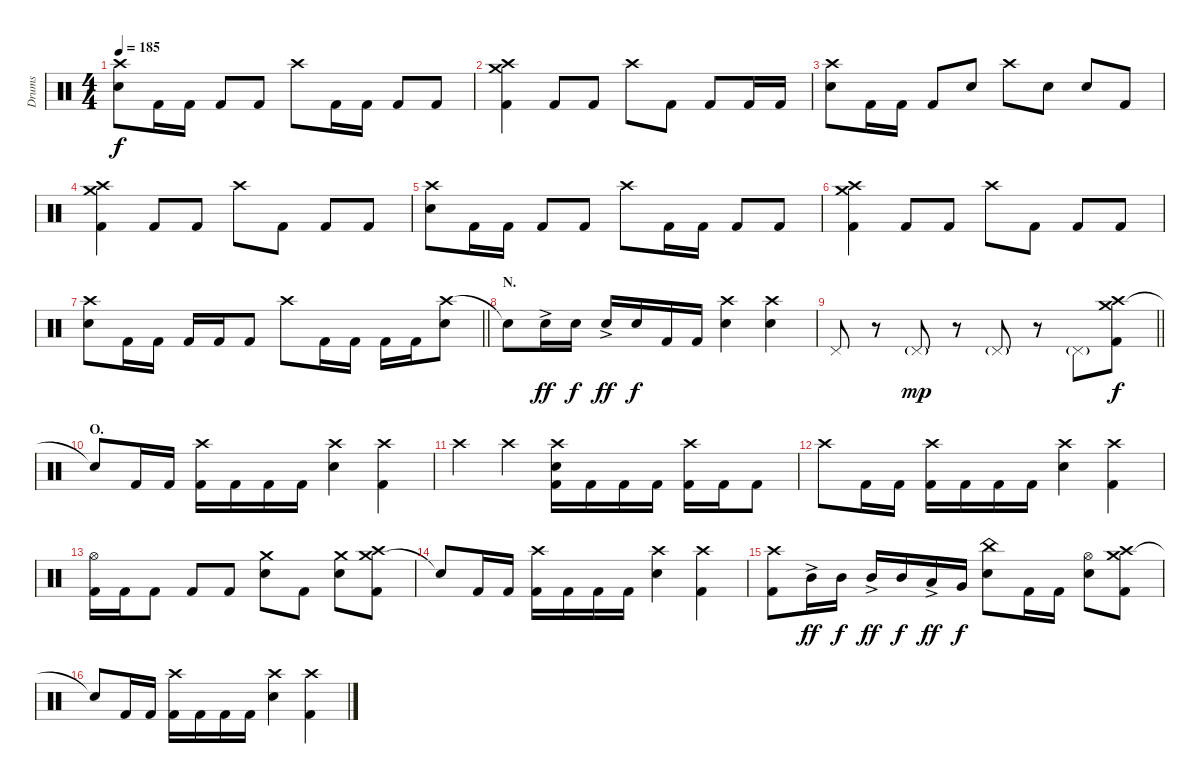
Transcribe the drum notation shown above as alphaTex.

\track ("Drums" "Drums") {instrument percussion}
\staff {score}
\articulation defaults
\ts (4 4)
\tempo 185
\clef neutral
\ks c
("Crash high (hit)" "Electric Snare (hit)").8{dy f} "Kick (hit) 2".16 "Kick (hit) 2".16 "Kick (hit) 2".8 "Kick (hit) 2".8 "Crash high (hit)".8 "Kick (hit) 2".16 "Kick (hit) 2".16 "Kick (hit) 2".8 "Kick (hit) 2".8 |
("Crash medium (hit)" "Crash high (hit)" "Kick (hit) 2").4 "Kick (hit) 2".8 "Kick (hit) 2".8 "Crash high (hit)".8 "Kick (hit) 2".8 "Kick (hit) 2".8 "Kick (hit) 2".16 "Kick (hit) 2".16 |
("Crash high (hit)" "Electric Snare (hit)").8 "Kick (hit) 2".16 "Kick (hit) 2".16 "Kick (hit) 2".8 "Electric Snare (hit)".8 "Crash high (hit)".8 "Electric Snare (hit)".8 "Electric Snare (hit)".8 "Kick (hit) 2".8 |
("Crash medium (hit)" "Crash high (hit)" "Kick (hit) 2").4 "Kick (hit) 2".8 "Kick (hit) 2".8 "Crash high (hit)".8 "Kick (hit) 2".8 "Kick (hit) 2".8 "Kick (hit) 2".8 |
("Crash high (hit)" "Electric Snare (hit)").8 "Kick (hit) 2".16 "Kick (hit) 2".16 "Kick (hit) 2".8 "Kick (hit) 2".8 "Crash high (hit)".8 "Kick (hit) 2".16 "Kick (hit) 2".16 "Kick (hit) 2".8 "Kick (hit) 2".8 |
("Crash medium (hit)" "Crash high (hit)" "Kick (hit) 2").4 "Kick (hit) 2".8 "Kick (hit) 2".8 "Crash high (hit)".8 "Kick (hit) 2".8 "Kick (hit) 2".8 "Kick (hit) 2".8 |
\barLineRight lightlight
("Crash high (hit)" "Electric Snare (hit)").8 "Kick (hit) 2".16 "Kick (hit) 2".16 "Kick (hit) 2".16 "Kick (hit) 2".16 "Kick (hit) 2".8 "Crash high (hit)".8 "Kick (hit) 2".16 "Kick (hit) 2".16 "Kick (hit) 2".16 "Kick (hit) 2".16 ("Crash high (hit)" "Electric Snare (hit)").8 |
\section ("" "N.")
"Snare (hit)"{t}.8 "Electric Snare (hit)"{ac}.16{dy ff} "Electric Snare (hit)".16{dy f} "Electric Snare (hit)"{ac}.16{dy ff} "Electric Snare (hit)".16{dy f} "Kick (hit) 2".16 "Kick (hit) 2".16 ("Crash high (hit)" "Electric Snare (hit)").4 ("Crash high (hit)" "Electric Snare (hit)").4 |
\barLineRight lightlight "Pedal Hi-Hat (hit)".8
r.8 "Pedal Hi-Hat (hit)"{g}.8{dy mp} r.8 "Pedal Hi-Hat (hit)"{g}.8 r.8 "Pedal Hi-Hat (hit)"{g}.8 ("Crash medium (hit)" "Crash high (hit)" "Kick (hit) 2").8{dy f} |
\section ("" "O.")
"Snare (hit)"{t}.8 "Kick (hit) 2".16 "Kick (hit) 2".16 ("Crash high (hit)" "Kick (hit) 2").16 "Kick (hit) 2".16 "Kick (hit) 2".16 "Kick (hit) 2".16 ("Crash high (hit)" "Electric Snare (hit)").4 ("Crash high (hit)" "Kick (hit) 2").4 |
"Crash high (hit)".4 "Crash high (hit)".4 ("Crash high (hit)" "Electric Snare (hit)" "Kick (hit) 2").16 "Kick (hit) 2".16 "Kick (hit) 2".16 "Kick (hit) 2".16 ("Crash high (hit)" "Kick (hit) 2").16 "Kick (hit) 2".16 "Kick (hit) 2".8 |
"Crash high (hit)".8 "Kick (hit) 2".16 "Kick (hit) 2".16 ("Crash high (hit)" "Kick (hit) 2").16 "Kick (hit) 2".16 "Kick (hit) 2".16 "Kick (hit) 2".16 ("Crash high (hit)" "Electric Snare (hit)").4 ("Crash high (hit)" "Kick (hit) 2").4 |
("Hi-Hat (open)" "Kick (hit) 2").16 "Kick (hit) 2".16 "Kick (hit) 2".8 "Kick (hit) 2".8 "Kick (hit) 2".8 ("Crash medium (hit)" "Electric Snare (hit)").8 "Kick (hit) 2".8 ("Crash medium (hit)" "Electric Snare (hit)").8 ("Crash medium (hit)" "Crash high (hit)" "Kick (hit) 2").8 |
"Snare (hit)"{t}.8 "Kick (hit) 2".16 "Kick (hit) 2".16 ("Crash high (hit)" "Kick (hit) 2").16 "Kick (hit) 2".16 "Kick (hit) 2".16 "Kick (hit) 2".16 ("Crash high (hit)" "Electric Snare (hit)").4 ("Crash high (hit)" "Kick (hit) 2").4 |
("Crash high (hit)" "Kick (hit) 2").8 "Mid Tom (hit)"{ac}.16{dy ff} "Mid Tom (hit)".16{dy f} "Mid Tom (hit)"{ac}.16{dy ff} "Mid Tom (hit)".16{dy f} "Low Tom (hit)"{ac}.16{dy ff} "Very Low Tom (hit)".16{dy f} ("China (hit)" "Electric Snare (hit)").8 "Kick (hit) 2".16 "Kick (hit) 2".16 ("Hi-Hat (open)" "Electric Snare (hit)").8 ("Crash medium (hit)" "Crash high (hit)" "Kick (hit) 2").8 |
"Snare (hit)"{t}.8 "Kick (hit) 2".16 "Kick (hit) 2".16 ("Crash high (hit)" "Kick (hit) 2").16 "Kick (hit) 2".16 "Kick (hit) 2".16 "Kick (hit) 2".16 ("Crash high (hit)" "Electric Snare (hit)").4 ("Crash high (hit)" "Kick (hit) 2").4
